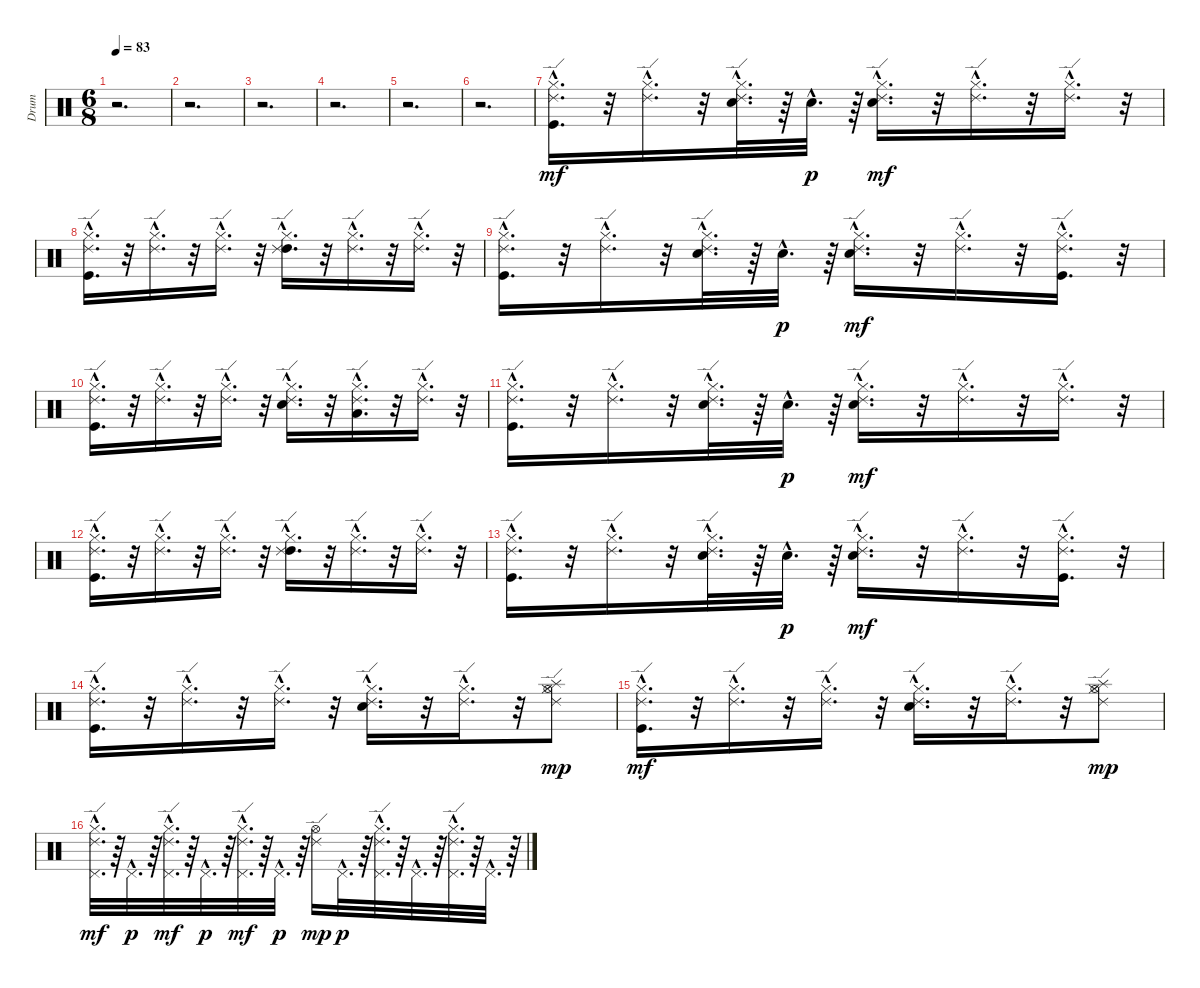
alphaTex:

\track ("Drum" "Drum") {instrument percussion}
\staff {score}
\articulation defaults
\ts (6 8)
\tempo 83
\clef neutral
\ks c
r.2{d dy mf} |
r.2{d} |
r.2{d} |
r.2{d} |
r.2{d} |
r.2{d} |
("Hi-Hat (closed)"{hac} "Kick (hit)"{hac} "Ride (edge) 2"{hac}).16{d} r.32 ("Hi-Hat (closed)"{hac} "Ride (edge) 2"{hac}).16{d} r.32 ("Hi-Hat (closed)"{hac} "Snare (hit) 2"{hac} "Ride (edge) 2"{hac}).32{d} r.64 "Snare (hit) 2"{hac}.32{d dy p} r.64 ("Snare (hit) 2"{hac} "Hi-Hat (closed)"{hac} "Ride (edge) 2"{hac}).16{d dy mf} r.32 ("Hi-Hat (closed)"{hac} "Ride (edge) 2"{hac}).16{d} r.32 ("Hi-Hat (closed)"{hac} "Ride (edge) 2"{hac}).16{d} r.32 |
("Kick (hit)"{hac} "Hi-Hat (closed)"{hac} "Ride (edge) 2"{hac}).16{d} r.32 ("Ride (edge) 2"{hac} "Hi-Hat (closed)"{hac}).16{d} r.32 ("Hi-Hat (closed)"{hac} "Ride (edge) 2"{hac}).16{d} r.32 ("Hi-Hat (closed)"{hac} "High Tom (hit)"{hac} "Ride (edge) 2"{hac}).16{d} r.32 ("Hi-Hat (closed)"{hac} "Ride (edge) 2"{hac}).16{d} r.32 ("Ride (edge) 2"{hac} "Hi-Hat (closed)"{hac}).16{d} r.32 |
("Ride (edge) 2"{hac} "Kick (hit)"{hac} "Hi-Hat (closed)"{hac}).16{d} r.32 ("Ride (edge) 2"{hac} "Hi-Hat (closed)"{hac}).16{d} r.32 ("Ride (edge) 2"{hac} "Snare (hit) 2"{hac} "Hi-Hat (closed)"{hac}).32{d} r.64 "Snare (hit) 2"{hac}.32{d dy p} r.64 ("Ride (edge) 2"{hac} "Hi-Hat (closed)"{hac} "Snare (hit) 2"{hac}).16{d dy mf} r.32 ("Ride (edge) 2"{hac} "Hi-Hat (closed)"{hac}).16{d} r.32 ("Ride (edge) 2"{hac} "Hi-Hat (closed)"{hac} "Kick (hit)"{hac}).16{d} r.32 |
("Hi-Hat (closed)"{hac} "Ride (edge) 2"{hac} "Kick (hit)"{hac}).16{d} r.32 ("Hi-Hat (closed)"{hac} "Ride (edge) 2"{hac}).16{d} r.32 ("Ride (edge) 2"{hac} "Hi-Hat (closed)"{hac}).16{d} r.32 ("Ride (edge) 2"{hac} "Hi-Hat (closed)"{hac} "Snare (hit) 2"{hac}).16{d} r.32 ("Low Tom (hit)"{hac} "Ride (edge) 2"{hac} "Hi-Hat (closed)"{hac}).16{d} r.32 ("Ride (edge) 2"{hac} "Hi-Hat (closed)"{hac}).16{d} r.32 |
("Ride (edge) 2"{hac} "Kick (hit)"{hac} "Hi-Hat (closed)"{hac}).16{d} r.32 ("Ride (edge) 2"{hac} "Hi-Hat (closed)"{hac}).16{d} r.32 ("Ride (edge) 2"{hac} "Snare (hit) 2"{hac} "Hi-Hat (closed)"{hac}).32{d} r.64 "Snare (hit) 2"{hac}.32{d dy p} r.64 ("Ride (edge) 2"{hac} "Hi-Hat (closed)"{hac} "Snare (hit) 2"{hac}).16{d dy mf} r.32 ("Ride (edge) 2"{hac} "Hi-Hat (closed)"{hac}).16{d} r.32 ("Ride (edge) 2"{hac} "Hi-Hat (closed)"{hac}).16{d} r.32 |
("Ride (edge) 2"{hac} "Hi-Hat (closed)"{hac} "Kick (hit)"{hac}).16{d} r.32 ("Ride (edge) 2"{hac} "Hi-Hat (closed)"{hac}).16{d} r.32 ("Hi-Hat (closed)"{hac} "Ride (edge) 2"{hac}).16{d} r.32 ("Hi-Hat (closed)"{hac} "High Tom (hit)"{hac} "Ride (edge) 2"{hac}).16{d} r.32 ("Ride (edge) 2"{hac} "Hi-Hat (closed)"{hac}).16{d} r.32 ("Hi-Hat (closed)"{hac} "Ride (edge) 2"{hac}).16{d} r.32 |
("Hi-Hat (closed)"{hac} "Kick (hit)"{hac} "Ride (edge) 2"{hac}).16{d} r.32 ("Hi-Hat (closed)"{hac} "Ride (edge) 2"{hac}).16{d} r.32 ("Hi-Hat (closed)"{hac} "Snare (hit) 2"{hac} "Ride (edge) 2"{hac}).32{d} r.64 "Snare (hit) 2"{hac}.32{d dy p} r.64 ("Snare (hit) 2"{hac} "Hi-Hat (closed)"{hac} "Ride (edge) 2"{hac}).16{d dy mf} r.32 ("Hi-Hat (closed)"{hac} "Ride (edge) 2"{hac}).16{d} r.32 ("Kick (hit)"{hac} "Hi-Hat (closed)"{hac} "Ride (edge) 2"{hac}).16{d} r.32 |
("Kick (hit)"{hac} "Hi-Hat (closed)"{hac} "Ride (edge) 2"{hac}).16{d} r.32 ("Hi-Hat (closed)"{hac} "Ride (edge) 2"{hac}).16{d} r.32 ("Ride (edge) 2"{hac} "Hi-Hat (closed)"{hac}).16{d} r.32 ("Ride (edge) 2"{hac} "Hi-Hat (closed)"{hac} "Snare (hit) 2"{hac}).16{d} r.32 ("Ride (edge) 2"{hac} "Hi-Hat (closed)"{hac}).16{d} r.32 ("Splash (hit)" "Hi-Hat (closed)" "Hi-Hat (open)" "Ride (edge) 2").8{dy mp} |
("Hi-Hat (closed)"{hac} "Kick (hit)"{hac} "Ride (edge) 2"{hac}).16{d dy mf} r.32 ("Ride (edge) 2"{hac} "Hi-Hat (closed)"{hac}).16{d} r.32 ("Hi-Hat (closed)"{hac} "Ride (edge) 2"{hac}).16{d} r.32 ("Snare (hit) 2"{hac} "Hi-Hat (closed)"{hac} "Ride (edge) 2"{hac}).16{d} r.32 ("Hi-Hat (closed)"{hac} "Ride (edge) 2"{hac}).16{d} r.32 ("Splash (hit)" "Hi-Hat (closed)" "Ride (edge) 2" "Hi-Hat (open)").8{dy mp} |
("Hi-Hat (closed)"{hac} "Pedal Hi-Hat (hit)"{hac} "Ride (edge) 2"{hac}).32{d dy mf} r.64 "Pedal Hi-Hat (hit)"{hac}.32{d dy p} r.64 ("Hi-Hat (closed)"{hac} "Pedal Hi-Hat (hit)"{hac} "Ride (edge) 2"{hac}).32{d dy mf} r.64 "Pedal Hi-Hat (hit)"{hac}.32{d dy p} r.64 ("Hi-Hat (closed)"{hac} "Pedal Hi-Hat (hit)"{hac} "Ride (edge) 2"{hac}).32{d dy mf} r.64 "Pedal Hi-Hat (hit)"{hac}.32{d dy p} r.64 ("Hi-Hat (open)" "Ride (edge) 2").16{dy mp} "Pedal Hi-Hat (hit)"{hac}.32{d dy p} r.64 ("Ride (edge) 2"{hac} "Hi-Hat (closed)"{hac} "Pedal Hi-Hat (hit)"{hac}).32{d} r.64 "Pedal Hi-Hat (hit)"{hac}.32{d} r.64 ("Ride (edge) 2"{hac} "Hi-Hat (closed)"{hac} "Pedal Hi-Hat (hit)"{hac}).32{d} r.64 "Pedal Hi-Hat (hit)"{hac}.32{d} r.64
